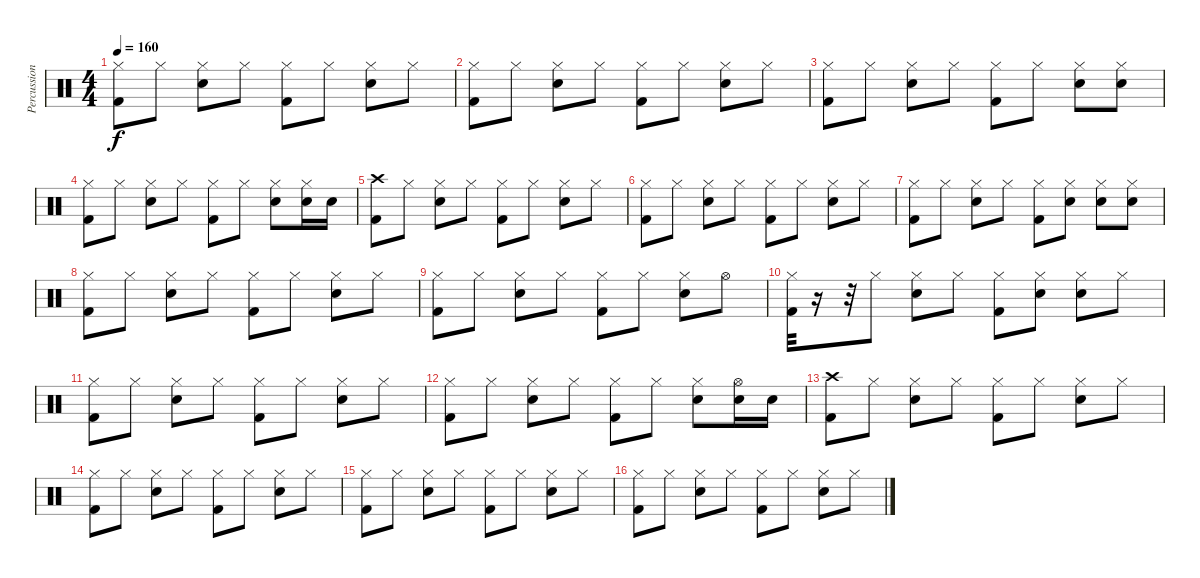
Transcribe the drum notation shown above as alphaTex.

\track ("Percussions" "Percussion") {instrument percussion}
\staff {score}
\articulation defaults
\ts (4 4)
\tempo 160
\clef neutral
\ks c
("Hi-Hat (closed)" "Kick (hit) 2").8{dy f} "Hi-Hat (closed)".8 ("Hi-Hat (closed)" "Snare (hit) 2").8 "Hi-Hat (closed)".8 ("Hi-Hat (closed)" "Kick (hit) 2").8 "Hi-Hat (closed)".8 ("Hi-Hat (closed)" "Snare (hit) 2").8 "Hi-Hat (closed)".8 |
("Hi-Hat (closed)" "Kick (hit) 2").8 "Hi-Hat (closed)".8 ("Hi-Hat (closed)" "Snare (hit) 2").8 "Hi-Hat (closed)".8 ("Hi-Hat (closed)" "Kick (hit) 2").8 "Hi-Hat (closed)".8 ("Hi-Hat (closed)" "Snare (hit) 2").8 "Hi-Hat (closed)".8 |
("Hi-Hat (closed)" "Kick (hit) 2").8 "Hi-Hat (closed)".8 ("Hi-Hat (closed)" "Snare (hit) 2").8 "Hi-Hat (closed)".8 ("Hi-Hat (closed)" "Kick (hit) 2").8 "Hi-Hat (closed)".8 ("Hi-Hat (closed)" "Snare (hit) 2").8 ("Hi-Hat (closed)" "Snare (hit) 2").8 |
("Hi-Hat (closed)" "Kick (hit) 2").8 "Hi-Hat (closed)".8 ("Hi-Hat (closed)" "Snare (hit) 2").8 "Hi-Hat (closed)".8 ("Hi-Hat (closed)" "Kick (hit) 2").8 "Hi-Hat (closed)".8 ("Snare (hit) 2" "Hi-Hat (closed)").8 ("Hi-Hat (closed)" "Snare (hit) 2").16 "Snare (hit) 2".16 |
("Crash high (hit)" "Kick (hit) 2").8 "Hi-Hat (closed)".8 ("Hi-Hat (closed)" "Snare (hit) 2").8 "Hi-Hat (closed)".8 ("Hi-Hat (closed)" "Kick (hit) 2").8 "Hi-Hat (closed)".8 ("Hi-Hat (closed)" "Snare (hit) 2").8 "Hi-Hat (closed)".8 |
("Hi-Hat (closed)" "Kick (hit) 2").8 "Hi-Hat (closed)".8 ("Hi-Hat (closed)" "Snare (hit) 2").8 "Hi-Hat (closed)".8 ("Hi-Hat (closed)" "Kick (hit) 2").8 "Hi-Hat (closed)".8 ("Hi-Hat (closed)" "Snare (hit) 2").8 "Hi-Hat (closed)".8 |
("Hi-Hat (closed)" "Kick (hit) 2").8 "Hi-Hat (closed)".8 ("Hi-Hat (closed)" "Snare (hit) 2").8 "Hi-Hat (closed)".8 ("Hi-Hat (closed)" "Kick (hit) 2").8 ("Hi-Hat (closed)" "Snare (hit) 2").8 ("Hi-Hat (closed)" "Snare (hit) 2").8 ("Hi-Hat (closed)" "Snare (hit) 2").8 |
("Hi-Hat (closed)" "Kick (hit) 2").8 "Hi-Hat (closed)".8 ("Hi-Hat (closed)" "Snare (hit) 2").8 "Hi-Hat (closed)".8 ("Hi-Hat (closed)" "Kick (hit) 2").8 "Hi-Hat (closed)".8 ("Hi-Hat (closed)" "Snare (hit) 2").8 "Hi-Hat (closed)".8 |
("Hi-Hat (closed)" "Kick (hit) 2").8 "Hi-Hat (closed)".8 ("Hi-Hat (closed)" "Snare (hit) 2").8 "Hi-Hat (closed)".8 ("Hi-Hat (closed)" "Kick (hit) 2").8 "Hi-Hat (closed)".8 ("Hi-Hat (closed)" "Snare (hit) 2").8 "Hi-Hat (open)".8 |
("Hi-Hat (closed)" "Kick (hit) 2").32 r.16 r.32 "Hi-Hat (closed)".8 ("Hi-Hat (closed)" "Snare (hit) 2").8 "Hi-Hat (closed)".8 ("Hi-Hat (closed)" "Kick (hit) 2").8 ("Hi-Hat (closed)" "Snare (hit) 2").8 ("Hi-Hat (closed)" "Snare (hit) 2").8 "Hi-Hat (closed)".8 |
("Hi-Hat (closed)" "Kick (hit) 2").8 "Hi-Hat (closed)".8 ("Hi-Hat (closed)" "Snare (hit) 2").8 "Hi-Hat (closed)".8 ("Hi-Hat (closed)" "Kick (hit) 2").8 "Hi-Hat (closed)".8 ("Hi-Hat (closed)" "Snare (hit) 2").8 "Hi-Hat (closed)".8 |
("Hi-Hat (closed)" "Kick (hit) 2").8 "Hi-Hat (closed)".8 ("Hi-Hat (closed)" "Snare (hit) 2").8 "Hi-Hat (closed)".8 ("Kick (hit) 2" "Hi-Hat (closed)").8 "Hi-Hat (closed)".8 ("Hi-Hat (closed)" "Snare (hit) 2").8 ("Hi-Hat (open)" "Snare (hit) 2").16 "Snare (hit) 2".16 |
("Crash high (hit)" "Kick (hit) 2").8 "Hi-Hat (closed)".8 ("Hi-Hat (closed)" "Snare (hit) 2").8 "Hi-Hat (closed)".8 ("Kick (hit) 2" "Hi-Hat (closed)").8 "Hi-Hat (closed)".8 ("Hi-Hat (closed)" "Snare (hit) 2").8 "Hi-Hat (closed)".8 |
("Hi-Hat (closed)" "Kick (hit) 2").8 "Hi-Hat (closed)".8 ("Hi-Hat (closed)" "Snare (hit) 2").8 "Hi-Hat (closed)".8 ("Hi-Hat (closed)" "Kick (hit) 2").8 "Hi-Hat (closed)".8 ("Hi-Hat (closed)" "Snare (hit) 2").8 "Hi-Hat (closed)".8 |
("Hi-Hat (closed)" "Kick (hit) 2").8 "Hi-Hat (closed)".8 ("Hi-Hat (closed)" "Snare (hit) 2").8 "Hi-Hat (closed)".8 ("Hi-Hat (closed)" "Kick (hit) 2").8 "Hi-Hat (closed)".8 ("Hi-Hat (closed)" "Snare (hit) 2").8 "Hi-Hat (closed)".8 |
("Hi-Hat (closed)" "Kick (hit) 2").8 "Hi-Hat (closed)".8 ("Hi-Hat (closed)" "Snare (hit) 2").8 "Hi-Hat (closed)".8 ("Hi-Hat (closed)" "Kick (hit) 2").8 "Hi-Hat (closed)".8 ("Hi-Hat (closed)" "Snare (hit) 2").8 "Hi-Hat (closed)".8
